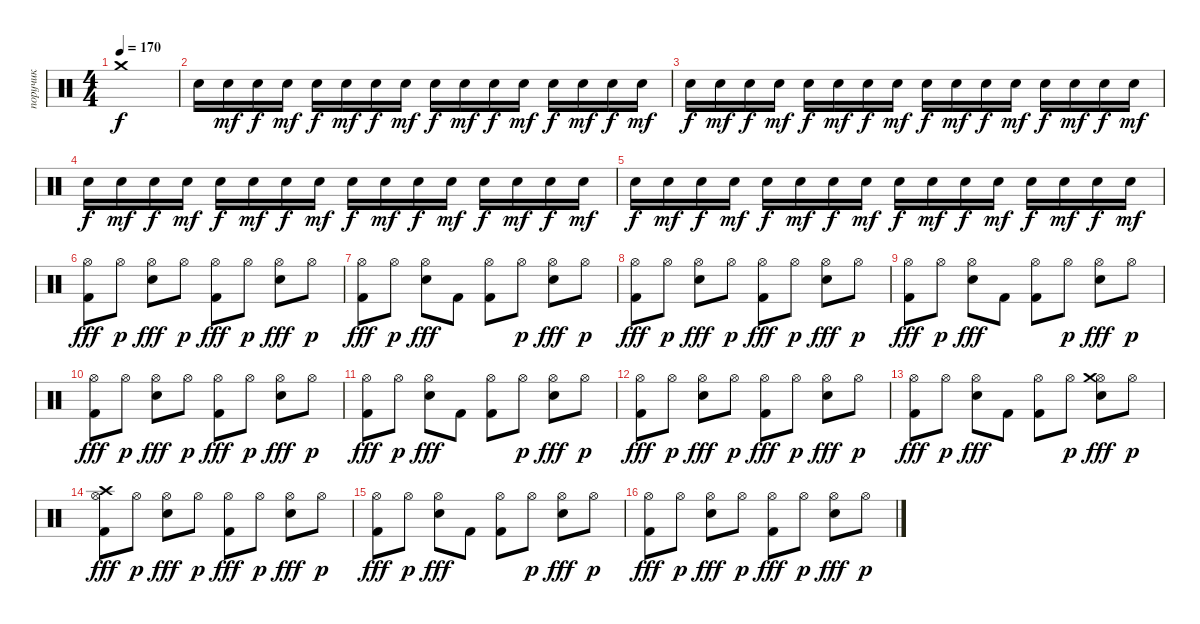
\track ("поручик" "поручик") {instrument percussion}
\staff {score}
\articulation defaults
\ts (4 4)
\tempo 170
\clef neutral
\ks c "Crash medium (hit)".1{dy f}
|
"Electric Snare (hit)".16 "Electric Snare (hit)".16{dy mf} "Electric Snare (hit)".16{dy f} "Electric Snare (hit)".16{dy mf} "Electric Snare (hit)".16{dy f} "Electric Snare (hit)".16{dy mf} "Electric Snare (hit)".16{dy f} "Electric Snare (hit)".16{dy mf} "Electric Snare (hit)".16{dy f} "Electric Snare (hit)".16{dy mf} "Electric Snare (hit)".16{dy f} "Electric Snare (hit)".16{dy mf} "Electric Snare (hit)".16{dy f} "Electric Snare (hit)".16{dy mf} "Electric Snare (hit)".16{dy f} "Electric Snare (hit)".16{dy mf} |
"Electric Snare (hit)".16{dy f} "Electric Snare (hit)".16{dy mf} "Electric Snare (hit)".16{dy f} "Electric Snare (hit)".16{dy mf} "Electric Snare (hit)".16{dy f} "Electric Snare (hit)".16{dy mf} "Electric Snare (hit)".16{dy f} "Electric Snare (hit)".16{dy mf} "Electric Snare (hit)".16{dy f} "Electric Snare (hit)".16{dy mf} "Electric Snare (hit)".16{dy f} "Electric Snare (hit)".16{dy mf} "Electric Snare (hit)".16{dy f} "Electric Snare (hit)".16{dy mf} "Electric Snare (hit)".16{dy f} "Electric Snare (hit)".16{dy mf} |
"Electric Snare (hit)".16{dy f} "Electric Snare (hit)".16{dy mf} "Electric Snare (hit)".16{dy f} "Electric Snare (hit)".16{dy mf} "Electric Snare (hit)".16{dy f} "Electric Snare (hit)".16{dy mf} "Electric Snare (hit)".16{dy f} "Electric Snare (hit)".16{dy mf} "Electric Snare (hit)".16{dy f} "Electric Snare (hit)".16{dy mf} "Electric Snare (hit)".16{dy f} "Electric Snare (hit)".16{dy mf} "Electric Snare (hit)".16{dy f} "Electric Snare (hit)".16{dy mf} "Electric Snare (hit)".16{dy f} "Electric Snare (hit)".16{dy mf} |
"Electric Snare (hit)".16{dy f} "Electric Snare (hit)".16{dy mf} "Electric Snare (hit)".16{dy f} "Electric Snare (hit)".16{dy mf} "Electric Snare (hit)".16{dy f} "Electric Snare (hit)".16{dy mf} "Electric Snare (hit)".16{dy f} "Electric Snare (hit)".16{dy mf} "Electric Snare (hit)".16{dy f} "Electric Snare (hit)".16{dy mf} "Electric Snare (hit)".16{dy f} "Electric Snare (hit)".16{dy mf} "Electric Snare (hit)".16{dy f} "Electric Snare (hit)".16{dy mf} "Electric Snare (hit)".16{dy f} "Electric Snare (hit)".16{dy mf} |
("Hi-Hat (open)" "Kick (hit) 2").8{dy fff} "Hi-Hat (open)".8{dy p} ("Hi-Hat (open)" "Electric Snare (hit)").8{dy fff} "Hi-Hat (open)".8{dy p} ("Hi-Hat (open)" "Kick (hit) 2").8{dy fff} "Hi-Hat (open)".8{dy p} ("Hi-Hat (open)" "Electric Snare (hit)").8{dy fff} "Hi-Hat (open)".8{dy p} |
("Hi-Hat (open)" "Kick (hit) 2").8{dy fff} "Hi-Hat (open)".8{dy p} ("Hi-Hat (open)" "Electric Snare (hit)").8{dy fff} "Kick (hit) 2".8 ("Hi-Hat (open)" "Kick (hit) 2").8 "Hi-Hat (open)".8{dy p} ("Hi-Hat (open)" "Electric Snare (hit)").8{dy fff} "Hi-Hat (open)".8{dy p} |
("Hi-Hat (open)" "Kick (hit) 2").8{dy fff} "Hi-Hat (open)".8{dy p} ("Hi-Hat (open)" "Electric Snare (hit)").8{dy fff} "Hi-Hat (open)".8{dy p} ("Hi-Hat (open)" "Kick (hit) 2").8{dy fff} "Hi-Hat (open)".8{dy p} ("Hi-Hat (open)" "Electric Snare (hit)").8{dy fff} "Hi-Hat (open)".8{dy p} |
("Hi-Hat (open)" "Kick (hit) 2").8{dy fff} "Hi-Hat (open)".8{dy p} ("Hi-Hat (open)" "Electric Snare (hit)").8{dy fff} "Kick (hit) 2".8 ("Hi-Hat (open)" "Kick (hit) 2").8 "Hi-Hat (open)".8{dy p} ("Hi-Hat (open)" "Electric Snare (hit)").8{dy fff} "Hi-Hat (open)".8{dy p} |
("Hi-Hat (open)" "Kick (hit) 2").8{dy fff} "Hi-Hat (open)".8{dy p} ("Hi-Hat (open)" "Electric Snare (hit)").8{dy fff} "Hi-Hat (open)".8{dy p} ("Hi-Hat (open)" "Kick (hit) 2").8{dy fff} "Hi-Hat (open)".8{dy p} ("Hi-Hat (open)" "Electric Snare (hit)").8{dy fff} "Hi-Hat (open)".8{dy p} |
("Hi-Hat (open)" "Kick (hit) 2").8{dy fff} "Hi-Hat (open)".8{dy p} ("Hi-Hat (open)" "Electric Snare (hit)").8{dy fff} "Kick (hit) 2".8 ("Hi-Hat (open)" "Kick (hit) 2").8 "Hi-Hat (open)".8{dy p} ("Hi-Hat (open)" "Electric Snare (hit)").8{dy fff} "Hi-Hat (open)".8{dy p} |
("Hi-Hat (open)" "Kick (hit) 2").8{dy fff} "Hi-Hat (open)".8{dy p} ("Hi-Hat (open)" "Electric Snare (hit)").8{dy fff} "Hi-Hat (open)".8{dy p} ("Hi-Hat (open)" "Kick (hit) 2").8{dy fff} "Hi-Hat (open)".8{dy p} ("Hi-Hat (open)" "Electric Snare (hit)").8{dy fff} "Hi-Hat (open)".8{dy p} |
("Hi-Hat (open)" "Kick (hit) 2").8{dy fff} "Hi-Hat (open)".8{dy p} ("Hi-Hat (open)" "Electric Snare (hit)").8{dy fff} "Kick (hit) 2".8 ("Hi-Hat (open)" "Kick (hit) 2").8 "Hi-Hat (open)".8{dy p} ("Hi-Hat (open)" "Crash medium (hit)" "Electric Snare (hit)").8{dy fff} "Hi-Hat (open)".8{dy p} |
("Hi-Hat (open)" "Crash high (hit)" "Kick (hit) 2").8{dy fff} "Hi-Hat (open)".8{dy p} ("Hi-Hat (open)" "Electric Snare (hit)").8{dy fff} "Hi-Hat (open)".8{dy p} ("Hi-Hat (open)" "Kick (hit) 2").8{dy fff} "Hi-Hat (open)".8{dy p} ("Hi-Hat (open)" "Electric Snare (hit)").8{dy fff} "Hi-Hat (open)".8{dy p} |
("Hi-Hat (open)" "Kick (hit) 2").8{dy fff} "Hi-Hat (open)".8{dy p} ("Hi-Hat (open)" "Electric Snare (hit)").8{dy fff} "Kick (hit) 2".8 ("Hi-Hat (open)" "Kick (hit) 2").8 "Hi-Hat (open)".8{dy p} ("Hi-Hat (open)" "Electric Snare (hit)").8{dy fff} "Hi-Hat (open)".8{dy p} |
("Hi-Hat (open)" "Kick (hit) 2").8{dy fff} "Hi-Hat (open)".8{dy p} ("Hi-Hat (open)" "Electric Snare (hit)").8{dy fff} "Hi-Hat (open)".8{dy p} ("Hi-Hat (open)" "Kick (hit) 2").8{dy fff} "Hi-Hat (open)".8{dy p} ("Hi-Hat (open)" "Electric Snare (hit)").8{dy fff} "Hi-Hat (open)".8{dy p}
